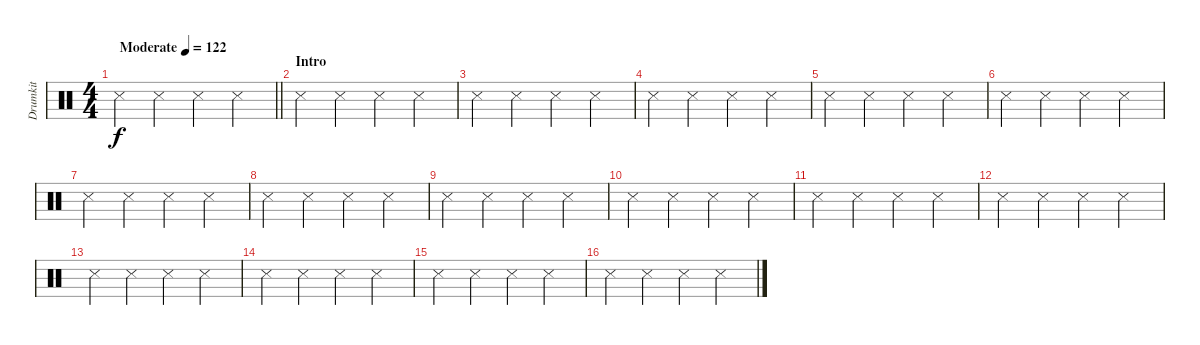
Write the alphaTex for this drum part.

\track ("Drumkit" "Drumkit") {mute instrument percussion}
\staff {score}
\articulation defaults
\ts (4 4)
\tempo (122 "Moderate")
\clef neutral
\barLineRight lightlight
\ks c "Snare (side stick) 3".4{dy f} "Snare (side stick) 3".4 "Snare (side stick) 3".4 "Snare (side stick) 3".4
|
\section ("" "Intro")
"Snare (side stick) 3".4 "Snare (side stick) 3".4 "Snare (side stick) 3".4 "Snare (side stick) 3".4 |
"Snare (side stick) 3".4 "Snare (side stick) 3".4 "Snare (side stick) 3".4 "Snare (side stick) 3".4 |
"Snare (side stick) 3".4 "Snare (side stick) 3".4 "Snare (side stick) 3".4 "Snare (side stick) 3".4 |
"Snare (side stick) 3".4 "Snare (side stick) 3".4 "Snare (side stick) 3".4 "Snare (side stick) 3".4 |
"Snare (side stick) 3".4 "Snare (side stick) 3".4 "Snare (side stick) 3".4 "Snare (side stick) 3".4 |
"Snare (side stick) 3".4 "Snare (side stick) 3".4 "Snare (side stick) 3".4 "Snare (side stick) 3".4 |
"Snare (side stick) 3".4 "Snare (side stick) 3".4 "Snare (side stick) 3".4 "Snare (side stick) 3".4 |
"Snare (side stick) 3".4 "Snare (side stick) 3".4 "Snare (side stick) 3".4 "Snare (side stick) 3".4 |
"Snare (side stick) 3".4 "Snare (side stick) 3".4 "Snare (side stick) 3".4 "Snare (side stick) 3".4 |
"Snare (side stick) 3".4 "Snare (side stick) 3".4 "Snare (side stick) 3".4 "Snare (side stick) 3".4 |
"Snare (side stick) 3".4 "Snare (side stick) 3".4 "Snare (side stick) 3".4 "Snare (side stick) 3".4 |
"Snare (side stick) 3".4 "Snare (side stick) 3".4 "Snare (side stick) 3".4 "Snare (side stick) 3".4 |
"Snare (side stick) 3".4 "Snare (side stick) 3".4 "Snare (side stick) 3".4 "Snare (side stick) 3".4 |
"Snare (side stick) 3".4 "Snare (side stick) 3".4 "Snare (side stick) 3".4 "Snare (side stick) 3".4 |
"Snare (side stick) 3".4 "Snare (side stick) 3".4 "Snare (side stick) 3".4 "Snare (side stick) 3".4
